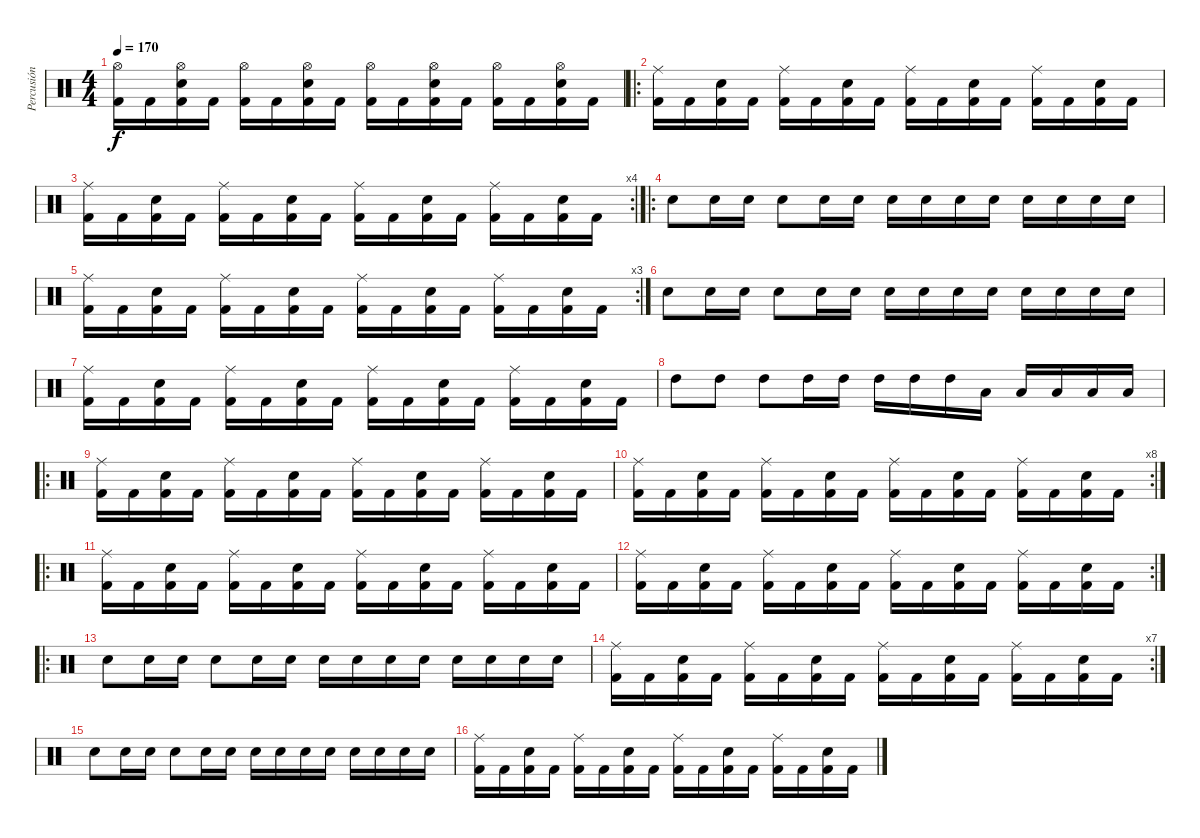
\track ("Percusión" "Percusión") {instrument percussion}
\staff {score}
\articulation defaults
\ts (4 4)
\tempo 170
\clef neutral
\ks c
("Kick (hit) 2" "Hi-Hat (open)").16{dy f} "Kick (hit) 2".16 ("Kick (hit) 2" "Hi-Hat (open)" "Snare (hit) 2").16 "Kick (hit) 2".16 ("Kick (hit) 2" "Hi-Hat (open)").16 "Kick (hit) 2".16 ("Kick (hit) 2" "Hi-Hat (open)" "Snare (hit) 2").16 "Kick (hit) 2".16 ("Kick (hit) 2" "Hi-Hat (open)").16 "Kick (hit) 2".16 ("Kick (hit) 2" "Hi-Hat (open)" "Snare (hit) 2").16 "Kick (hit) 2".16 ("Kick (hit) 2" "Hi-Hat (open)").16 "Kick (hit) 2".16 ("Kick (hit) 2" "Hi-Hat (open)" "Snare (hit) 2").16 "Kick (hit) 2".16 |
\ro
("Kick (hit) 2" "Ride (middle)").16 "Kick (hit) 2".16 ("Kick (hit) 2" "Snare (hit) 2").16 "Kick (hit) 2".16 ("Kick (hit) 2" "Ride (middle)").16 "Kick (hit) 2".16 ("Kick (hit) 2" "Snare (hit) 2").16 "Kick (hit) 2".16 ("Kick (hit) 2" "Ride (middle)").16 "Kick (hit) 2".16 ("Kick (hit) 2" "Snare (hit) 2").16 "Kick (hit) 2".16 ("Kick (hit) 2" "Ride (middle)").16 "Kick (hit) 2".16 ("Kick (hit) 2" "Snare (hit) 2").16 "Kick (hit) 2".16 |
\rc 4
("Kick (hit) 2" "Ride (middle)").16 "Kick (hit) 2".16 ("Kick (hit) 2" "Snare (hit) 2").16 "Kick (hit) 2".16 ("Kick (hit) 2" "Ride (middle)").16 "Kick (hit) 2".16 ("Kick (hit) 2" "Snare (hit) 2").16 "Kick (hit) 2".16 ("Kick (hit) 2" "Ride (middle)").16 "Kick (hit) 2".16 ("Kick (hit) 2" "Snare (hit) 2").16 "Kick (hit) 2".16 ("Kick (hit) 2" "Ride (middle)").16 "Kick (hit) 2".16 ("Kick (hit) 2" "Snare (hit) 2").16 "Kick (hit) 2".16 |
\ro "Snare (hit) 2".8 "Snare (hit) 2".16 "Snare (hit) 2".16 "Snare (hit) 2".8 "Snare (hit) 2".16 "Snare (hit) 2".16 "Snare (hit) 2".16 "Snare (hit) 2".16 "Snare (hit) 2".16 "Snare (hit) 2".16 "Snare (hit) 2".16 "Snare (hit) 2".16 "Snare (hit) 2".16 "Snare (hit) 2".16
|
\rc 3
("Kick (hit) 2" "Ride (middle)").16 "Kick (hit) 2".16 ("Kick (hit) 2" "Snare (hit) 2").16 "Kick (hit) 2".16 ("Kick (hit) 2" "Ride (middle)").16 "Kick (hit) 2".16 ("Kick (hit) 2" "Snare (hit) 2").16 "Kick (hit) 2".16 ("Kick (hit) 2" "Ride (middle)").16 "Kick (hit) 2".16 ("Kick (hit) 2" "Snare (hit) 2").16 "Kick (hit) 2".16 ("Kick (hit) 2" "Ride (middle)").16 "Kick (hit) 2".16 ("Kick (hit) 2" "Snare (hit) 2").16 "Kick (hit) 2".16 |
"Snare (hit) 2".8 "Snare (hit) 2".16 "Snare (hit) 2".16 "Snare (hit) 2".8 "Snare (hit) 2".16 "Snare (hit) 2".16 "Snare (hit) 2".16 "Snare (hit) 2".16 "Snare (hit) 2".16 "Snare (hit) 2".16 "Snare (hit) 2".16 "Snare (hit) 2".16 "Snare (hit) 2".16 "Snare (hit) 2".16 |
("Kick (hit) 2" "Ride (middle)").16 "Kick (hit) 2".16 ("Kick (hit) 2" "Snare (hit) 2").16 "Kick (hit) 2".16 ("Kick (hit) 2" "Ride (middle)").16 "Kick (hit) 2".16 ("Kick (hit) 2" "Snare (hit) 2").16 "Kick (hit) 2".16 ("Kick (hit) 2" "Ride (middle)").16 "Kick (hit) 2".16 ("Kick (hit) 2" "Snare (hit) 2").16 "Kick (hit) 2".16 ("Kick (hit) 2" "Ride (middle)").16 "Kick (hit) 2".16 ("Kick (hit) 2" "Snare (hit) 2").16 "Kick (hit) 2".16 |
"High Tom (hit)".8 "High Tom (hit)".8 "High Tom (hit)".8 "High Tom (hit)".16 "High Tom (hit)".16 "High Tom (hit)".16 "High Tom (hit)".16 "High Tom (hit)".16 "Low Tom (hit)".16 "Low Tom (hit)".16 "Low Tom (hit)".16 "Low Tom (hit)".16 "Low Tom (hit)".16 |
\ro
("Kick (hit) 2" "Ride (middle)").16 "Kick (hit) 2".16 ("Kick (hit) 2" "Snare (hit) 2").16 "Kick (hit) 2".16 ("Kick (hit) 2" "Ride (middle)").16 "Kick (hit) 2".16 ("Kick (hit) 2" "Snare (hit) 2").16 "Kick (hit) 2".16 ("Kick (hit) 2" "Ride (middle)").16 "Kick (hit) 2".16 ("Kick (hit) 2" "Snare (hit) 2").16 "Kick (hit) 2".16 ("Kick (hit) 2" "Ride (middle)").16 "Kick (hit) 2".16 ("Kick (hit) 2" "Snare (hit) 2").16 "Kick (hit) 2".16 |
\rc 8
("Kick (hit) 2" "Ride (middle)").16 "Kick (hit) 2".16 ("Kick (hit) 2" "Snare (hit) 2").16 "Kick (hit) 2".16 ("Kick (hit) 2" "Ride (middle)").16 "Kick (hit) 2".16 ("Kick (hit) 2" "Snare (hit) 2").16 "Kick (hit) 2".16 ("Kick (hit) 2" "Ride (middle)").16 "Kick (hit) 2".16 ("Kick (hit) 2" "Snare (hit) 2").16 "Kick (hit) 2".16 ("Kick (hit) 2" "Ride (middle)").16 "Kick (hit) 2".16 ("Kick (hit) 2" "Snare (hit) 2").16 "Kick (hit) 2".16 |
\ro
("Kick (hit) 2" "Ride (middle)").16 "Kick (hit) 2".16 ("Kick (hit) 2" "Snare (hit) 2").16 "Kick (hit) 2".16 ("Kick (hit) 2" "Ride (middle)").16 "Kick (hit) 2".16 ("Kick (hit) 2" "Snare (hit) 2").16 "Kick (hit) 2".16 ("Kick (hit) 2" "Ride (middle)").16 "Kick (hit) 2".16 ("Kick (hit) 2" "Snare (hit) 2").16 "Kick (hit) 2".16 ("Kick (hit) 2" "Ride (middle)").16 "Kick (hit) 2".16 ("Kick (hit) 2" "Snare (hit) 2").16 "Kick (hit) 2".16 |
\rc 2
("Kick (hit) 2" "Ride (middle)").16 "Kick (hit) 2".16 ("Kick (hit) 2" "Snare (hit) 2").16 "Kick (hit) 2".16 ("Kick (hit) 2" "Ride (middle)").16 "Kick (hit) 2".16 ("Kick (hit) 2" "Snare (hit) 2").16 "Kick (hit) 2".16 ("Kick (hit) 2" "Ride (middle)").16 "Kick (hit) 2".16 ("Kick (hit) 2" "Snare (hit) 2").16 "Kick (hit) 2".16 ("Kick (hit) 2" "Ride (middle)").16 "Kick (hit) 2".16 ("Kick (hit) 2" "Snare (hit) 2").16 "Kick (hit) 2".16 |
\ro "Snare (hit) 2".8 "Snare (hit) 2".16 "Snare (hit) 2".16 "Snare (hit) 2".8 "Snare (hit) 2".16 "Snare (hit) 2".16 "Snare (hit) 2".16 "Snare (hit) 2".16 "Snare (hit) 2".16 "Snare (hit) 2".16 "Snare (hit) 2".16 "Snare (hit) 2".16 "Snare (hit) 2".16 "Snare (hit) 2".16
|
\rc 7
("Kick (hit) 2" "Ride (middle)").16 "Kick (hit) 2".16 ("Kick (hit) 2" "Snare (hit) 2").16 "Kick (hit) 2".16 ("Kick (hit) 2" "Ride (middle)").16 "Kick (hit) 2".16 ("Kick (hit) 2" "Snare (hit) 2").16 "Kick (hit) 2".16 ("Kick (hit) 2" "Ride (middle)").16 "Kick (hit) 2".16 ("Kick (hit) 2" "Snare (hit) 2").16 "Kick (hit) 2".16 ("Kick (hit) 2" "Ride (middle)").16 "Kick (hit) 2".16 ("Kick (hit) 2" "Snare (hit) 2").16 "Kick (hit) 2".16 |
"Snare (hit) 2".8 "Snare (hit) 2".16 "Snare (hit) 2".16 "Snare (hit) 2".8 "Snare (hit) 2".16 "Snare (hit) 2".16 "Snare (hit) 2".16 "Snare (hit) 2".16 "Snare (hit) 2".16 "Snare (hit) 2".16 "Snare (hit) 2".16 "Snare (hit) 2".16 "Snare (hit) 2".16 "Snare (hit) 2".16 |
("Kick (hit) 2" "Ride (middle)").16 "Kick (hit) 2".16 ("Kick (hit) 2" "Snare (hit) 2").16 "Kick (hit) 2".16 ("Kick (hit) 2" "Ride (middle)").16 "Kick (hit) 2".16 ("Kick (hit) 2" "Snare (hit) 2").16 "Kick (hit) 2".16 ("Kick (hit) 2" "Ride (middle)").16 "Kick (hit) 2".16 ("Kick (hit) 2" "Snare (hit) 2").16 "Kick (hit) 2".16 ("Kick (hit) 2" "Ride (middle)").16 "Kick (hit) 2".16 ("Kick (hit) 2" "Snare (hit) 2").16 "Kick (hit) 2".16
